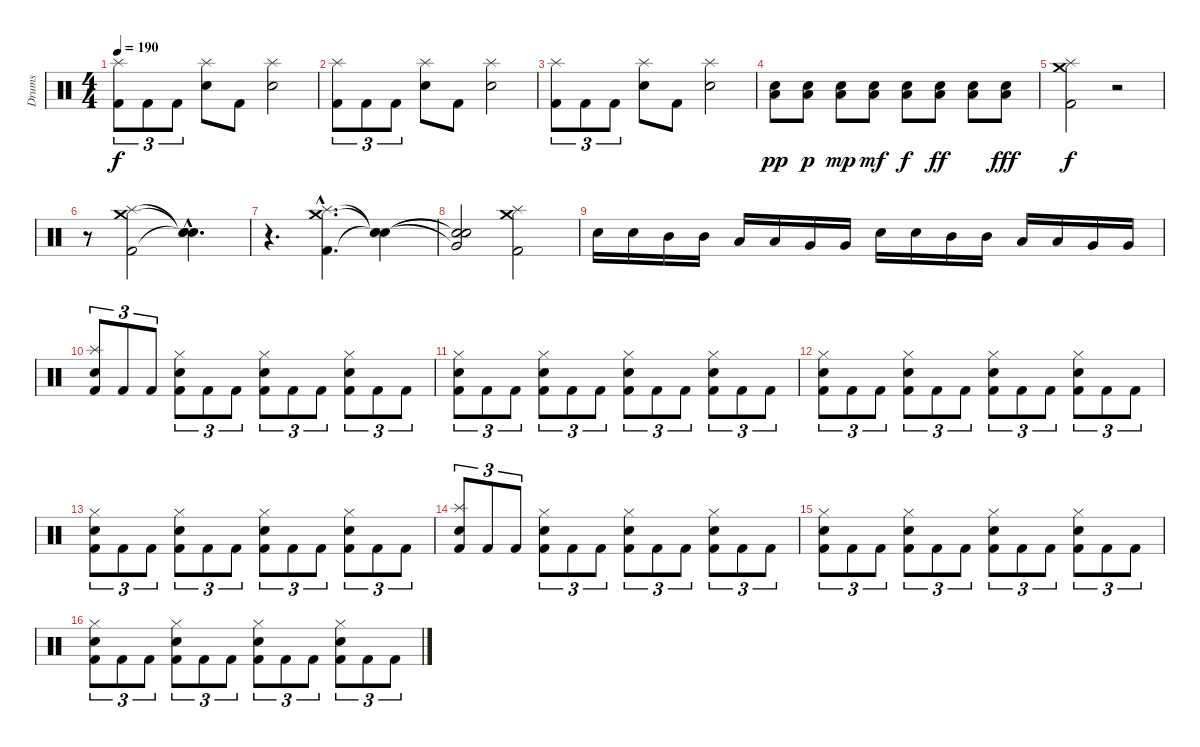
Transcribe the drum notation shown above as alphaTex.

\track ("Drums" "Drums") {instrument percussion}
\staff {score}
\articulation defaults
\ts (4 4)
\tempo 190
\clef neutral
\ks c
("Kick (hit) 2" "Splash (hit)").8{tu (3 2) dy f} "Kick (hit) 2".8{tu (3 2)} "Kick (hit) 2".8{tu (3 2)} ("Electric Snare (hit)" "Splash (hit)").8 "Kick (hit) 2".8 ("Electric Snare (hit)" "Splash (hit)").2 |
("Kick (hit) 2" "Splash (hit)").8{tu (3 2)} "Kick (hit) 2".8{tu (3 2)} "Kick (hit) 2".8{tu (3 2)} ("Electric Snare (hit)" "Splash (hit)").8 "Kick (hit) 2".8 ("Electric Snare (hit)" "Splash (hit)").2 |
("Kick (hit) 2" "Splash (hit)").8{tu (3 2)} "Kick (hit) 2".8{tu (3 2)} "Kick (hit) 2".8{tu (3 2)} ("Electric Snare (hit)" "Splash (hit)").8 "Kick (hit) 2".8 ("Electric Snare (hit)" "Splash (hit)").2 |
("Low Floor Tom (hit)" "Electric Snare (hit)").8{dy pp} ("Low Floor Tom (hit)" "Electric Snare (hit)").8{dy p} ("Low Floor Tom (hit)" "Electric Snare (hit)").8{dy mp} ("Low Floor Tom (hit)" "Electric Snare (hit)").8{dy mf} ("Low Floor Tom (hit)" "Electric Snare (hit)").8{dy f} ("Low Floor Tom (hit)" "Electric Snare (hit)").8{dy ff} ("Low Floor Tom (hit)" "Electric Snare (hit)").8 ("Low Floor Tom (hit)" "Electric Snare (hit)").8{dy fff} |
("Kick (hit) 2" "Splash (hit)" "Crash medium (hit)").2{dy f} r.2 |
r.8 ("Kick (hit) 2" "Splash (hit)" "Crash medium (hit)").2 ("Snare (hit)"{hac t} "Snare (hit)"{hac t} "Snare (hit)"{hac t}).4{d} |
r.4{d} ("Kick (hit) 2"{hac} "Splash (hit)"{hac} "Crash medium (hit)"{hac}).4{d} ("Snare (hit)"{t} "Snare (hit)"{t} "Snare (hit)"{t}).4 |
("Very Low Tom (hit)"{t} "Snare (hit)"{t} "Snare (hit)"{t}).2 ("Kick (hit) 2" "Splash (hit)" "Crash medium (hit)").2 |
"Electric Snare (hit)".16 "Electric Snare (hit)".16 "Mid Tom (hit)".16 "Mid Tom (hit)".16 "Low Tom (hit)".16 "Low Tom (hit)".16 "Very Low Tom (hit)".16 "Very Low Tom (hit)".16 "Electric Snare (hit)".16 "Electric Snare (hit)".16 "Mid Tom (hit)".16 "Mid Tom (hit)".16 "Low Tom (hit)".16 "Low Tom (hit)".16 "Very Low Tom (hit)".16 "Very Low Tom (hit)".16 |
("Kick (hit) 2" "Electric Snare (hit)" "Splash (hit)").8{tu (3 2)} "Kick (hit) 2".8{tu (3 2)} "Kick (hit) 2".8{tu (3 2)} ("Kick (hit) 2" "Electric Snare (hit)" "Hi-Hat (closed)").8{tu (3 2)} "Kick (hit) 2".8{tu (3 2)} "Kick (hit) 2".8{tu (3 2)} ("Kick (hit) 2" "Electric Snare (hit)" "Hi-Hat (closed)").8{tu (3 2)} "Kick (hit) 2".8{tu (3 2)} "Kick (hit) 2".8{tu (3 2)} ("Kick (hit) 2" "Electric Snare (hit)" "Hi-Hat (closed)").8{tu (3 2)} "Kick (hit) 2".8{tu (3 2)} "Kick (hit) 2".8{tu (3 2)} |
("Kick (hit) 2" "Electric Snare (hit)" "Hi-Hat (closed)").8{tu (3 2)} "Kick (hit) 2".8{tu (3 2)} "Kick (hit) 2".8{tu (3 2)} ("Kick (hit) 2" "Electric Snare (hit)" "Hi-Hat (closed)").8{tu (3 2)} "Kick (hit) 2".8{tu (3 2)} "Kick (hit) 2".8{tu (3 2)} ("Kick (hit) 2" "Electric Snare (hit)" "Hi-Hat (closed)").8{tu (3 2)} "Kick (hit) 2".8{tu (3 2)} "Kick (hit) 2".8{tu (3 2)} ("Kick (hit) 2" "Electric Snare (hit)" "Hi-Hat (closed)").8{tu (3 2)} "Kick (hit) 2".8{tu (3 2)} "Kick (hit) 2".8{tu (3 2)} |
("Kick (hit) 2" "Electric Snare (hit)" "Hi-Hat (closed)").8{tu (3 2)} "Kick (hit) 2".8{tu (3 2)} "Kick (hit) 2".8{tu (3 2)} ("Kick (hit) 2" "Electric Snare (hit)" "Hi-Hat (closed)").8{tu (3 2)} "Kick (hit) 2".8{tu (3 2)} "Kick (hit) 2".8{tu (3 2)} ("Kick (hit) 2" "Electric Snare (hit)" "Hi-Hat (closed)").8{tu (3 2)} "Kick (hit) 2".8{tu (3 2)} "Kick (hit) 2".8{tu (3 2)} ("Kick (hit) 2" "Electric Snare (hit)" "Hi-Hat (closed)").8{tu (3 2)} "Kick (hit) 2".8{tu (3 2)} "Kick (hit) 2".8{tu (3 2)} |
("Kick (hit) 2" "Electric Snare (hit)" "Hi-Hat (closed)").8{tu (3 2)} "Kick (hit) 2".8{tu (3 2)} "Kick (hit) 2".8{tu (3 2)} ("Kick (hit) 2" "Electric Snare (hit)" "Hi-Hat (closed)").8{tu (3 2)} "Kick (hit) 2".8{tu (3 2)} "Kick (hit) 2".8{tu (3 2)} ("Kick (hit) 2" "Electric Snare (hit)" "Hi-Hat (closed)").8{tu (3 2)} "Kick (hit) 2".8{tu (3 2)} "Kick (hit) 2".8{tu (3 2)} ("Kick (hit) 2" "Electric Snare (hit)" "Hi-Hat (closed)").8{tu (3 2)} "Kick (hit) 2".8{tu (3 2)} "Kick (hit) 2".8{tu (3 2)} |
("Kick (hit) 2" "Electric Snare (hit)" "Splash (hit)").8{tu (3 2)} "Kick (hit) 2".8{tu (3 2)} "Kick (hit) 2".8{tu (3 2)} ("Kick (hit) 2" "Electric Snare (hit)" "Hi-Hat (closed)").8{tu (3 2)} "Kick (hit) 2".8{tu (3 2)} "Kick (hit) 2".8{tu (3 2)} ("Kick (hit) 2" "Electric Snare (hit)" "Hi-Hat (closed)").8{tu (3 2)} "Kick (hit) 2".8{tu (3 2)} "Kick (hit) 2".8{tu (3 2)} ("Kick (hit) 2" "Electric Snare (hit)" "Hi-Hat (closed)").8{tu (3 2)} "Kick (hit) 2".8{tu (3 2)} "Kick (hit) 2".8{tu (3 2)} |
("Kick (hit) 2" "Electric Snare (hit)" "Hi-Hat (closed)").8{tu (3 2)} "Kick (hit) 2".8{tu (3 2)} "Kick (hit) 2".8{tu (3 2)} ("Kick (hit) 2" "Electric Snare (hit)" "Hi-Hat (closed)").8{tu (3 2)} "Kick (hit) 2".8{tu (3 2)} "Kick (hit) 2".8{tu (3 2)} ("Kick (hit) 2" "Electric Snare (hit)" "Hi-Hat (closed)").8{tu (3 2)} "Kick (hit) 2".8{tu (3 2)} "Kick (hit) 2".8{tu (3 2)} ("Kick (hit) 2" "Electric Snare (hit)" "Hi-Hat (closed)").8{tu (3 2)} "Kick (hit) 2".8{tu (3 2)} "Kick (hit) 2".8{tu (3 2)} |
("Kick (hit) 2" "Electric Snare (hit)" "Hi-Hat (closed)").8{tu (3 2)} "Kick (hit) 2".8{tu (3 2)} "Kick (hit) 2".8{tu (3 2)} ("Kick (hit) 2" "Electric Snare (hit)" "Hi-Hat (closed)").8{tu (3 2)} "Kick (hit) 2".8{tu (3 2)} "Kick (hit) 2".8{tu (3 2)} ("Kick (hit) 2" "Electric Snare (hit)" "Hi-Hat (closed)").8{tu (3 2)} "Kick (hit) 2".8{tu (3 2)} "Kick (hit) 2".8{tu (3 2)} ("Kick (hit) 2" "Electric Snare (hit)" "Hi-Hat (closed)").8{tu (3 2)} "Kick (hit) 2".8{tu (3 2)} "Kick (hit) 2".8{tu (3 2)}
